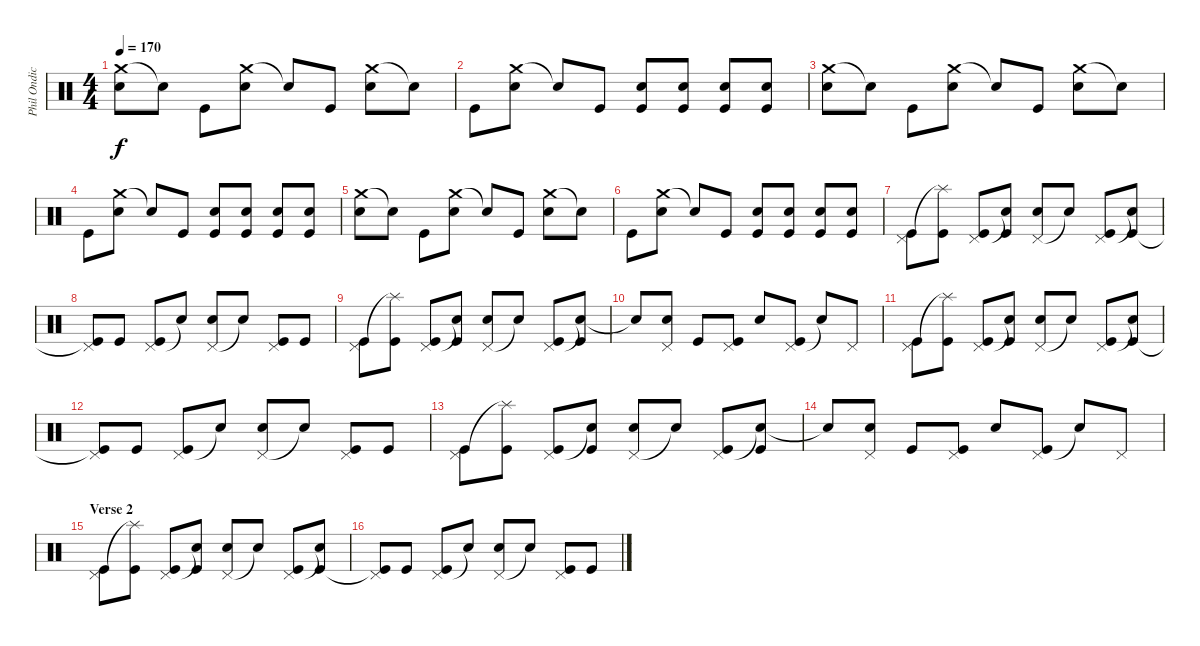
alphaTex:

\track ("Phil Ondich (Drums)" "Phil Ondic") {instrument percussion}
\staff {score}
\articulation defaults
\ts (4 4)
\tempo 170
\clef neutral
\ks c
("Crash medium (hit)" "Electric Snare (hit)").8{dy f} "Snare (hit)"{t}.8 "Kick (hit)".8 ("Crash medium (hit)" "Electric Snare (hit)").8 "Snare (hit)"{t}.8 "Kick (hit)".8 ("Crash medium (hit)" "Electric Snare (hit)").8 "Snare (hit)"{t}.8 |
"Kick (hit)".8 ("Crash medium (hit)" "Electric Snare (hit)").8 "Snare (hit)"{t}.8 "Kick (hit)".8 ("Electric Snare (hit)" "Kick (hit)").8 ("Electric Snare (hit)" "Kick (hit)").8 ("Electric Snare (hit)" "Kick (hit)").8 ("Electric Snare (hit)" "Kick (hit)").8 |
("Crash medium (hit)" "Electric Snare (hit)").8 "Snare (hit)"{t}.8 "Kick (hit)".8 ("Crash medium (hit)" "Electric Snare (hit)").8 "Snare (hit)"{t}.8 "Kick (hit)".8 ("Crash medium (hit)" "Electric Snare (hit)").8 "Snare (hit)"{t}.8 |
"Kick (hit)".8 ("Crash medium (hit)" "Electric Snare (hit)").8 "Snare (hit)"{t}.8 "Kick (hit)".8 ("Electric Snare (hit)" "Kick (hit)").8 ("Electric Snare (hit)" "Kick (hit)").8 ("Electric Snare (hit)" "Kick (hit)").8 ("Electric Snare (hit)" "Kick (hit)").8 |
("Crash medium (hit)" "Electric Snare (hit)").8 "Snare (hit)"{t}.8 "Kick (hit)".8 ("Crash medium (hit)" "Electric Snare (hit)").8 "Snare (hit)"{t}.8 "Kick (hit)".8 ("Crash medium (hit)" "Electric Snare (hit)").8 "Snare (hit)"{t}.8 |
"Kick (hit)".8 ("Crash medium (hit)" "Electric Snare (hit)").8 "Snare (hit)"{t}.8 "Kick (hit)".8 ("Electric Snare (hit)" "Kick (hit)").8 ("Electric Snare (hit)" "Kick (hit)").8 ("Electric Snare (hit)" "Kick (hit)").8 ("Electric Snare (hit)" "Kick (hit)").8 |
("Pedal Hi-Hat (hit)" "Kick (hit)").8 ("Splash (hit)"{t} "Kick (hit)").8 ("Pedal Hi-Hat (hit)" "Kick (hit)").8 ("Snare (hit)"{t} "Kick (hit)").8 ("Pedal Hi-Hat (hit)" "Electric Snare (hit)").8 "Snare (hit)"{t}.8 ("Pedal Hi-Hat (hit)" "Kick (hit)").8 ("Snare (hit)"{t} "Kick (hit)").8 |
("Pedal Hi-Hat (hit)" "Kick (hit)"{t}).8 "Kick (hit)".8 ("Pedal Hi-Hat (hit)" "Kick (hit)").8 "Snare (hit)"{t}.8 ("Pedal Hi-Hat (hit)" "Electric Snare (hit)").8 "Snare (hit)"{t}.8 ("Pedal Hi-Hat (hit)" "Kick (hit)").8 "Kick (hit)".8 |
("Pedal Hi-Hat (hit)" "Kick (hit)").8 ("Splash (hit)"{t} "Kick (hit)").8 ("Pedal Hi-Hat (hit)" "Kick (hit)").8 ("Snare (hit)"{t} "Kick (hit)").8 ("Pedal Hi-Hat (hit)" "Electric Snare (hit)").8 "Snare (hit)"{t}.8 ("Pedal Hi-Hat (hit)" "Kick (hit)").8 ("Snare (hit)"{t} "Kick (hit)").8 |
"Snare (hit)"{t}.8 ("Pedal Hi-Hat (hit)" "Electric Snare (hit)").8 "Kick (hit)".8 ("Pedal Hi-Hat (hit)" "Kick (hit)").8 "Electric Snare (hit)".8 ("Pedal Hi-Hat (hit)" "Kick (hit)").8 "Snare (hit)"{t}.8 "Pedal Hi-Hat (hit)".8 |
("Pedal Hi-Hat (hit)" "Kick (hit)").8 ("Splash (hit)"{t} "Kick (hit)").8 ("Pedal Hi-Hat (hit)" "Kick (hit)").8 ("Snare (hit)"{t} "Kick (hit)").8 ("Pedal Hi-Hat (hit)" "Electric Snare (hit)").8 "Snare (hit)"{t}.8 ("Pedal Hi-Hat (hit)" "Kick (hit)").8 ("Snare (hit)"{t} "Kick (hit)").8 |
("Pedal Hi-Hat (hit)" "Kick (hit)"{t}).8 "Kick (hit)".8 ("Pedal Hi-Hat (hit)" "Kick (hit)").8 "Snare (hit)"{t}.8 ("Pedal Hi-Hat (hit)" "Electric Snare (hit)").8 "Snare (hit)"{t}.8 ("Pedal Hi-Hat (hit)" "Kick (hit)").8 "Kick (hit)".8 |
("Pedal Hi-Hat (hit)" "Kick (hit)").8 ("Splash (hit)"{t} "Kick (hit)").8 ("Pedal Hi-Hat (hit)" "Kick (hit)").8 ("Snare (hit)"{t} "Kick (hit)").8 ("Pedal Hi-Hat (hit)" "Electric Snare (hit)").8 "Snare (hit)"{t}.8 ("Pedal Hi-Hat (hit)" "Kick (hit)").8 ("Snare (hit)"{t} "Kick (hit)").8 |
"Snare (hit)"{t}.8 ("Pedal Hi-Hat (hit)" "Electric Snare (hit)").8 "Kick (hit)".8 ("Pedal Hi-Hat (hit)" "Kick (hit)").8 "Electric Snare (hit)".8 ("Pedal Hi-Hat (hit)" "Kick (hit)").8 "Snare (hit)"{t}.8 "Pedal Hi-Hat (hit)".8 |
\section ("" "Verse 2")
("Pedal Hi-Hat (hit)" "Kick (hit)").8 ("Splash (hit)"{t} "Kick (hit)").8 ("Pedal Hi-Hat (hit)" "Kick (hit)").8 ("Snare (hit)"{t} "Kick (hit)").8 ("Pedal Hi-Hat (hit)" "Electric Snare (hit)").8 "Snare (hit)"{t}.8 ("Pedal Hi-Hat (hit)" "Kick (hit)").8 ("Snare (hit)"{t} "Kick (hit)").8 |
("Pedal Hi-Hat (hit)" "Kick (hit)"{t}).8 "Kick (hit)".8 ("Pedal Hi-Hat (hit)" "Kick (hit)").8 "Snare (hit)"{t}.8 ("Pedal Hi-Hat (hit)" "Electric Snare (hit)").8 "Snare (hit)"{t}.8 ("Pedal Hi-Hat (hit)" "Kick (hit)").8 "Kick (hit)".8
